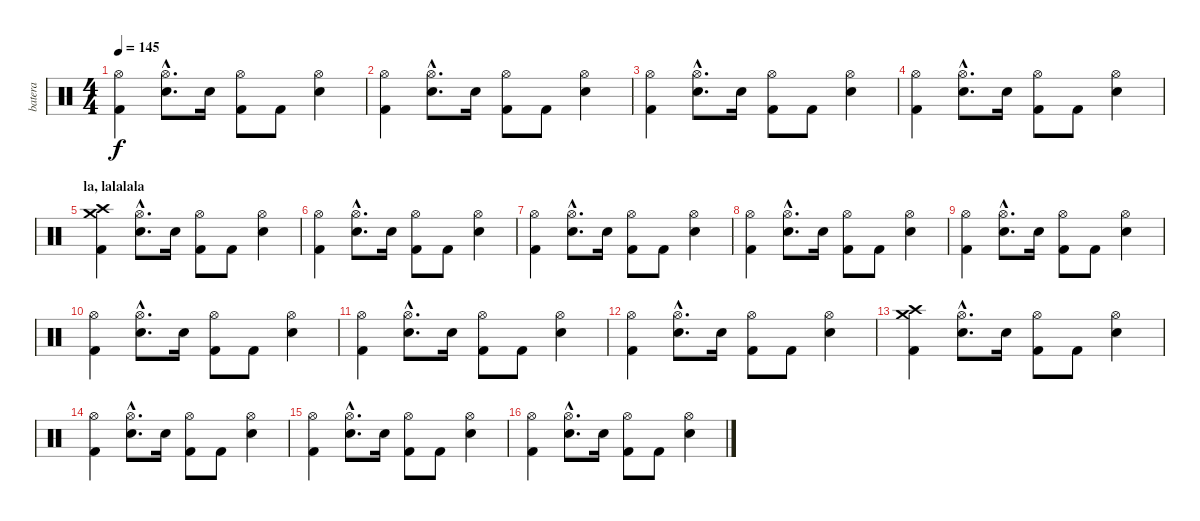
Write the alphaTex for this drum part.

\track ("batera" "batera") {instrument percussion}
\staff {score}
\articulation defaults
\ts (4 4)
\tempo 145
\clef neutral
\ks c
("Kick (hit) 2" "Hi-Hat (open)").4{dy f} ("Snare (hit) 2"{hac} "Hi-Hat (open)"{hac}).8{d} "Snare (hit) 2".16 ("Kick (hit) 2" "Hi-Hat (open)").8 "Kick (hit) 2".8 ("Snare (hit) 2" "Hi-Hat (open)").4 |
("Kick (hit) 2" "Hi-Hat (open)").4 ("Snare (hit) 2"{hac} "Hi-Hat (open)"{hac}).8{d} "Snare (hit) 2".16 ("Kick (hit) 2" "Hi-Hat (open)").8 "Kick (hit) 2".8 ("Snare (hit) 2" "Hi-Hat (open)").4 |
("Kick (hit) 2" "Hi-Hat (open)").4 ("Snare (hit) 2"{hac} "Hi-Hat (open)"{hac}).8{d} "Snare (hit) 2".16 ("Kick (hit) 2" "Hi-Hat (open)").8 "Kick (hit) 2".8 ("Snare (hit) 2" "Hi-Hat (open)").4 |
("Kick (hit) 2" "Hi-Hat (open)").4 ("Snare (hit) 2"{hac} "Hi-Hat (open)"{hac}).8{d} "Snare (hit) 2".16 ("Kick (hit) 2" "Hi-Hat (open)").8 "Kick (hit) 2".8 ("Snare (hit) 2" "Hi-Hat (open)").4 |
\section ("" "la, lalalala")
("Crash high (hit)" "Crash medium (hit)" "Kick (hit) 2").4 ("Snare (hit) 2"{hac} "Hi-Hat (open)"{hac}).8{d} "Snare (hit) 2".16 ("Kick (hit) 2" "Hi-Hat (open)").8 "Kick (hit) 2".8 ("Snare (hit) 2" "Hi-Hat (open)").4 |
("Kick (hit) 2" "Hi-Hat (open)").4 ("Snare (hit) 2"{hac} "Hi-Hat (open)"{hac}).8{d} "Snare (hit) 2".16 ("Kick (hit) 2" "Hi-Hat (open)").8 "Kick (hit) 2".8 ("Snare (hit) 2" "Hi-Hat (open)").4 |
("Kick (hit) 2" "Hi-Hat (open)").4 ("Snare (hit) 2"{hac} "Hi-Hat (open)"{hac}).8{d} "Snare (hit) 2".16 ("Kick (hit) 2" "Hi-Hat (open)").8 "Kick (hit) 2".8 ("Snare (hit) 2" "Hi-Hat (open)").4 |
("Kick (hit) 2" "Hi-Hat (open)").4 ("Snare (hit) 2"{hac} "Hi-Hat (open)"{hac}).8{d} "Snare (hit) 2".16 ("Kick (hit) 2" "Hi-Hat (open)").8 "Kick (hit) 2".8 ("Snare (hit) 2" "Hi-Hat (open)").4 |
("Kick (hit) 2" "Hi-Hat (open)").4 ("Snare (hit) 2"{hac} "Hi-Hat (open)"{hac}).8{d} "Snare (hit) 2".16 ("Kick (hit) 2" "Hi-Hat (open)").8 "Kick (hit) 2".8 ("Snare (hit) 2" "Hi-Hat (open)").4 |
("Kick (hit) 2" "Hi-Hat (open)").4 ("Snare (hit) 2"{hac} "Hi-Hat (open)"{hac}).8{d} "Snare (hit) 2".16 ("Kick (hit) 2" "Hi-Hat (open)").8 "Kick (hit) 2".8 ("Snare (hit) 2" "Hi-Hat (open)").4 |
("Kick (hit) 2" "Hi-Hat (open)").4 ("Snare (hit) 2"{hac} "Hi-Hat (open)"{hac}).8{d} "Snare (hit) 2".16 ("Kick (hit) 2" "Hi-Hat (open)").8 "Kick (hit) 2".8 ("Snare (hit) 2" "Hi-Hat (open)").4 |
("Kick (hit) 2" "Hi-Hat (open)").4 ("Snare (hit) 2"{hac} "Hi-Hat (open)"{hac}).8{d} "Snare (hit) 2".16 ("Kick (hit) 2" "Hi-Hat (open)").8 "Kick (hit) 2".8 ("Snare (hit) 2" "Hi-Hat (open)").4 |
("Crash high (hit)" "Crash medium (hit)" "Kick (hit) 2").4 ("Snare (hit) 2"{hac} "Hi-Hat (open)"{hac}).8{d} "Snare (hit) 2".16 ("Kick (hit) 2" "Hi-Hat (open)").8 "Kick (hit) 2".8 ("Snare (hit) 2" "Hi-Hat (open)").4 |
("Kick (hit) 2" "Hi-Hat (open)").4 ("Snare (hit) 2"{hac} "Hi-Hat (open)"{hac}).8{d} "Snare (hit) 2".16 ("Kick (hit) 2" "Hi-Hat (open)").8 "Kick (hit) 2".8 ("Snare (hit) 2" "Hi-Hat (open)").4 |
("Kick (hit) 2" "Hi-Hat (open)").4 ("Snare (hit) 2"{hac} "Hi-Hat (open)"{hac}).8{d} "Snare (hit) 2".16 ("Kick (hit) 2" "Hi-Hat (open)").8 "Kick (hit) 2".8 ("Snare (hit) 2" "Hi-Hat (open)").4 |
("Kick (hit) 2" "Hi-Hat (open)").4 ("Snare (hit) 2"{hac} "Hi-Hat (open)"{hac}).8{d} "Snare (hit) 2".16 ("Kick (hit) 2" "Hi-Hat (open)").8 "Kick (hit) 2".8 ("Snare (hit) 2" "Hi-Hat (open)").4
